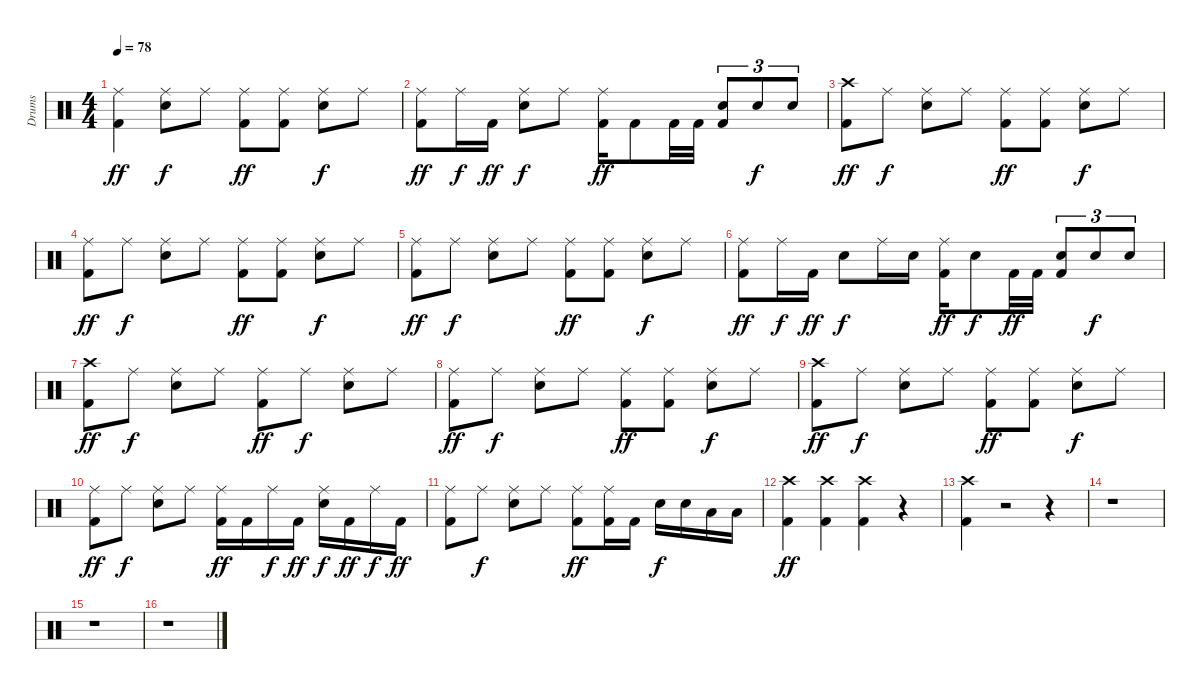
\track ("Drums" "Drums") {instrument percussion}
\staff {score}
\articulation defaults
\ts (4 4)
\tempo 78
\clef neutral
\ks c
("Ride (middle)" "Kick (hit) 2").4{dy ff} ("Ride (middle)" "Snare (hit) 2").8{dy f} "Ride (middle)".8 ("Ride (middle)" "Kick (hit) 2").8{dy ff} ("Ride (middle)" "Kick (hit) 2").8 ("Ride (middle)" "Snare (hit) 2").8{dy f} "Ride (middle)".8 |
("Ride (middle)" "Kick (hit) 2").8{dy ff} "Ride (middle)".16{dy f} "Kick (hit) 2".16{dy ff} ("Ride (middle)" "Snare (hit) 2").8{dy f} "Ride (middle)".8 ("Ride (middle)" "Kick (hit) 2").16{dy ff} "Kick (hit) 2".8 "Kick (hit) 2".32 "Kick (hit) 2".32 ("Snare (hit) 2" "Kick (hit) 2").8{tu (3 2)} "Snare (hit) 2".8{tu (3 2) dy f} "Snare (hit) 2".8{tu (3 2)} |
("Crash high (hit)" "Kick (hit) 2").8{dy ff} "Ride (middle)".8{dy f} ("Ride (middle)" "Snare (hit) 2").8 "Ride (middle)".8 ("Ride (middle)" "Kick (hit) 2").8{dy ff} ("Ride (middle)" "Kick (hit) 2").8 ("Ride (middle)" "Snare (hit) 2").8{dy f} "Ride (middle)".8 |
("Ride (middle)" "Kick (hit) 2").8{dy ff} "Ride (middle)".8{dy f} ("Ride (middle)" "Snare (hit) 2").8 "Ride (middle)".8 ("Ride (middle)" "Kick (hit) 2").8{dy ff} ("Ride (middle)" "Kick (hit) 2").8 ("Ride (middle)" "Snare (hit) 2").8{dy f} "Ride (middle)".8 |
("Ride (middle)" "Kick (hit) 2").8{dy ff} "Ride (middle)".8{dy f} ("Ride (middle)" "Snare (hit) 2").8 "Ride (middle)".8 ("Ride (middle)" "Kick (hit) 2").8{dy ff} ("Ride (middle)" "Kick (hit) 2").8 ("Ride (middle)" "Snare (hit) 2").8{dy f} "Ride (middle)".8 |
("Ride (middle)" "Kick (hit) 2").8{dy ff} "Ride (middle)".16{dy f} "Kick (hit) 2".16{dy ff} "Snare (hit) 2".8{dy f} "Ride (middle)".16 "Snare (hit) 2".16 ("Ride (middle)" "Kick (hit) 2").16{dy ff} "Snare (hit) 2".8{dy f} "Kick (hit) 2".32{dy ff} "Kick (hit) 2".32 ("Snare (hit) 2" "Kick (hit) 2").8{tu (3 2)} "Snare (hit) 2".8{tu (3 2) dy f} "Snare (hit) 2".8{tu (3 2)} |
("Crash high (hit)" "Kick (hit) 2").8{dy ff} "Ride (middle)".8{dy f} ("Ride (middle)" "Snare (hit) 2").8 "Ride (middle)".8 ("Ride (middle)" "Kick (hit) 2").8{dy ff} "Ride (middle)".8{dy f} ("Ride (middle)" "Snare (hit) 2").8 "Ride (middle)".8 |
("Ride (middle)" "Kick (hit) 2").8{dy ff} "Ride (middle)".8{dy f} ("Ride (middle)" "Snare (hit) 2").8 "Ride (middle)".8 ("Ride (middle)" "Kick (hit) 2").8{dy ff} ("Ride (middle)" "Kick (hit) 2").8 ("Ride (middle)" "Snare (hit) 2").8{dy f} "Ride (middle)".8 |
("Crash high (hit)" "Kick (hit) 2").8{dy ff} "Ride (middle)".8{dy f} ("Ride (middle)" "Snare (hit) 2").8 "Ride (middle)".8 ("Ride (middle)" "Kick (hit) 2").8{dy ff} ("Ride (middle)" "Kick (hit) 2").8 ("Ride (middle)" "Snare (hit) 2").8{dy f} "Ride (middle)".8 |
("Ride (middle)" "Kick (hit) 2").8{dy ff} "Ride (middle)".8{dy f} ("Ride (middle)" "Snare (hit) 2").8 "Ride (middle)".8 ("Ride (middle)" "Kick (hit) 2").16{dy ff} "Kick (hit) 2".16 "Ride (middle)".16{dy f} "Kick (hit) 2".16{dy ff} ("Ride (middle)" "Snare (hit) 2").16{dy f} "Kick (hit) 2".16{dy ff} "Ride (middle)".16{dy f} "Kick (hit) 2".16{dy ff} |
("Ride (middle)" "Kick (hit) 2").8 "Ride (middle)".8{dy f} ("Ride (middle)" "Snare (hit) 2").8 "Ride (middle)".8 ("Ride (middle)" "Kick (hit) 2").8{dy ff} ("Ride (middle)" "Kick (hit) 2").16 "Kick (hit) 2".16 "Snare (hit) 2".16{dy f} "Snare (hit) 2".16 "Low Tom (hit)".16 "Low Tom (hit)".16 |
("Crash high (hit)" "Kick (hit) 2").4{dy ff} ("Crash high (hit)" "Kick (hit) 2").4 ("Crash high (hit)" "Kick (hit) 2").4 r.4 |
("Crash high (hit)" "Kick (hit) 2").4 r.2 r.4 |
r.1 |
r.1 |
r.1
